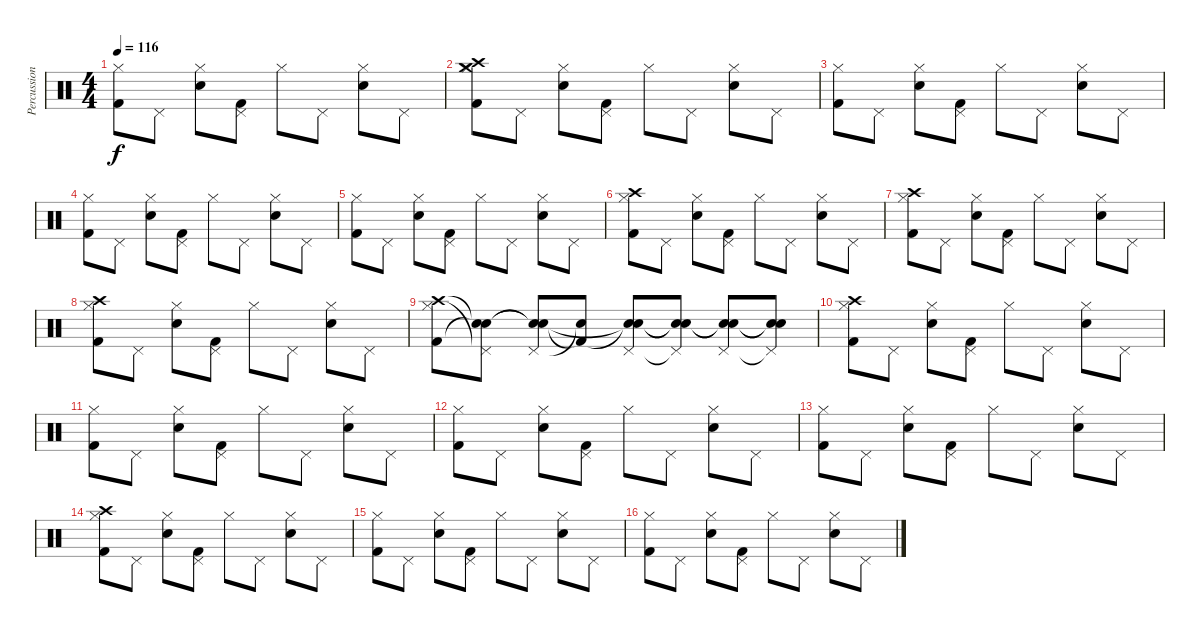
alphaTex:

\track ("Percussions" "Percussion") {instrument percussion}
\staff {score}
\articulation defaults
\ts (4 4)
\tempo 116
\clef neutral
\ks c
("Hi-Hat (closed)" "Kick (hit) 2").8{dy f} "Pedal Hi-Hat (hit)".8 ("Hi-Hat (closed)" "Snare (hit) 2").8 ("Pedal Hi-Hat (hit)" "Kick (hit) 2").8 "Hi-Hat (closed)".8 "Pedal Hi-Hat (hit)".8 ("Hi-Hat (closed)" "Snare (hit) 2").8 "Pedal Hi-Hat (hit)".8 |
("Hi-Hat (closed)" "Crash medium (hit)" "Crash high (hit)" "Kick (hit) 2").8 "Pedal Hi-Hat (hit)".8 ("Hi-Hat (closed)" "Snare (hit) 2").8 ("Pedal Hi-Hat (hit)" "Kick (hit) 2").8 "Hi-Hat (closed)".8 "Pedal Hi-Hat (hit)".8 ("Hi-Hat (closed)" "Snare (hit) 2").8 "Pedal Hi-Hat (hit)".8 |
("Hi-Hat (closed)" "Kick (hit) 2").8 "Pedal Hi-Hat (hit)".8 ("Hi-Hat (closed)" "Snare (hit) 2").8 ("Pedal Hi-Hat (hit)" "Kick (hit) 2").8 "Hi-Hat (closed)".8 "Pedal Hi-Hat (hit)".8 ("Hi-Hat (closed)" "Snare (hit) 2").8 "Pedal Hi-Hat (hit)".8 |
("Hi-Hat (closed)" "Kick (hit) 2").8 "Pedal Hi-Hat (hit)".8 ("Hi-Hat (closed)" "Snare (hit) 2").8 ("Pedal Hi-Hat (hit)" "Kick (hit) 2").8 "Hi-Hat (closed)".8 "Pedal Hi-Hat (hit)".8 ("Hi-Hat (closed)" "Snare (hit) 2").8 "Pedal Hi-Hat (hit)".8 |
("Hi-Hat (closed)" "Kick (hit) 2").8 "Pedal Hi-Hat (hit)".8 ("Hi-Hat (closed)" "Snare (hit) 2").8 ("Pedal Hi-Hat (hit)" "Kick (hit) 2").8 "Hi-Hat (closed)".8 "Pedal Hi-Hat (hit)".8 ("Hi-Hat (closed)" "Snare (hit) 2").8 "Pedal Hi-Hat (hit)".8 |
("Hi-Hat (closed)" "Crash high (hit)" "Kick (hit) 2").8 "Pedal Hi-Hat (hit)".8 ("Hi-Hat (closed)" "Snare (hit) 2").8 ("Pedal Hi-Hat (hit)" "Kick (hit) 2").8 "Hi-Hat (closed)".8 "Pedal Hi-Hat (hit)".8 ("Hi-Hat (closed)" "Snare (hit) 2").8 "Pedal Hi-Hat (hit)".8 |
("Hi-Hat (closed)" "Crash high (hit)" "Kick (hit) 2").8 "Pedal Hi-Hat (hit)".8 ("Hi-Hat (closed)" "Snare (hit) 2").8 ("Pedal Hi-Hat (hit)" "Kick (hit) 2").8 "Hi-Hat (closed)".8 "Pedal Hi-Hat (hit)".8 ("Hi-Hat (closed)" "Snare (hit) 2").8 "Pedal Hi-Hat (hit)".8 |
("Hi-Hat (closed)" "Crash high (hit)" "Kick (hit) 2").8 "Pedal Hi-Hat (hit)".8 ("Hi-Hat (closed)" "Snare (hit) 2").8 ("Pedal Hi-Hat (hit)" "Kick (hit) 2").8 "Hi-Hat (closed)".8 "Pedal Hi-Hat (hit)".8 ("Hi-Hat (closed)" "Snare (hit) 2").8 "Pedal Hi-Hat (hit)".8 |
("Hi-Hat (closed)" "Crash high (hit)" "Kick (hit) 2").8 ("Pedal Hi-Hat (hit)"{t} "Snare (hit)"{t} "Snare (hit)"{t}).8 ("Pedal Hi-Hat (hit)" "Snare (hit)"{t} "Snare (hit) 2"{t}).8 ("Snare (hit)"{t} "Kick (hit) 2"{t}).8 ("Pedal Hi-Hat (hit)" "Snare (hit)"{t} "Snare (hit)"{t}).8 ("Pedal Hi-Hat (hit)"{t} "Snare (hit)"{t} "Snare (hit)"{t}).8 ("Pedal Hi-Hat (hit)" "Snare (hit)"{t} "Snare (hit) 2"{t}).8 ("Pedal Hi-Hat (hit)"{t} "Snare (hit)"{t} "Snare (hit)"{t}).8 |
("Hi-Hat (closed)" "Crash high (hit)" "Kick (hit) 2").8 "Pedal Hi-Hat (hit)".8 ("Hi-Hat (closed)" "Snare (hit) 2").8 ("Pedal Hi-Hat (hit)" "Kick (hit) 2").8 "Hi-Hat (closed)".8 "Pedal Hi-Hat (hit)".8 ("Hi-Hat (closed)" "Snare (hit) 2").8 "Pedal Hi-Hat (hit)".8 |
("Hi-Hat (closed)" "Kick (hit) 2").8 "Pedal Hi-Hat (hit)".8 ("Hi-Hat (closed)" "Snare (hit) 2").8 ("Pedal Hi-Hat (hit)" "Kick (hit) 2").8 "Hi-Hat (closed)".8 "Pedal Hi-Hat (hit)".8 ("Hi-Hat (closed)" "Snare (hit) 2").8 "Pedal Hi-Hat (hit)".8 |
("Hi-Hat (closed)" "Kick (hit) 2").8 "Pedal Hi-Hat (hit)".8 ("Hi-Hat (closed)" "Snare (hit) 2").8 ("Pedal Hi-Hat (hit)" "Kick (hit) 2").8 "Hi-Hat (closed)".8 "Pedal Hi-Hat (hit)".8 ("Hi-Hat (closed)" "Snare (hit) 2").8 "Pedal Hi-Hat (hit)".8 |
("Hi-Hat (closed)" "Kick (hit) 2").8 "Pedal Hi-Hat (hit)".8 ("Hi-Hat (closed)" "Snare (hit) 2").8 ("Pedal Hi-Hat (hit)" "Kick (hit) 2").8 "Hi-Hat (closed)".8 "Pedal Hi-Hat (hit)".8 ("Hi-Hat (closed)" "Snare (hit) 2").8 "Pedal Hi-Hat (hit)".8 |
("Hi-Hat (closed)" "Crash high (hit)" "Kick (hit) 2").8 "Pedal Hi-Hat (hit)".8 ("Hi-Hat (closed)" "Snare (hit) 2").8 ("Pedal Hi-Hat (hit)" "Kick (hit) 2").8 "Hi-Hat (closed)".8 "Pedal Hi-Hat (hit)".8 ("Hi-Hat (closed)" "Snare (hit) 2").8 "Pedal Hi-Hat (hit)".8 |
("Hi-Hat (closed)" "Kick (hit) 2").8 "Pedal Hi-Hat (hit)".8 ("Hi-Hat (closed)" "Snare (hit) 2").8 ("Pedal Hi-Hat (hit)" "Kick (hit) 2").8 "Hi-Hat (closed)".8 "Pedal Hi-Hat (hit)".8 ("Hi-Hat (closed)" "Snare (hit) 2").8 "Pedal Hi-Hat (hit)".8 |
("Hi-Hat (closed)" "Kick (hit) 2").8 "Pedal Hi-Hat (hit)".8 ("Hi-Hat (closed)" "Snare (hit) 2").8 ("Pedal Hi-Hat (hit)" "Kick (hit) 2").8 "Hi-Hat (closed)".8 "Pedal Hi-Hat (hit)".8 ("Hi-Hat (closed)" "Snare (hit) 2").8 "Pedal Hi-Hat (hit)".8
